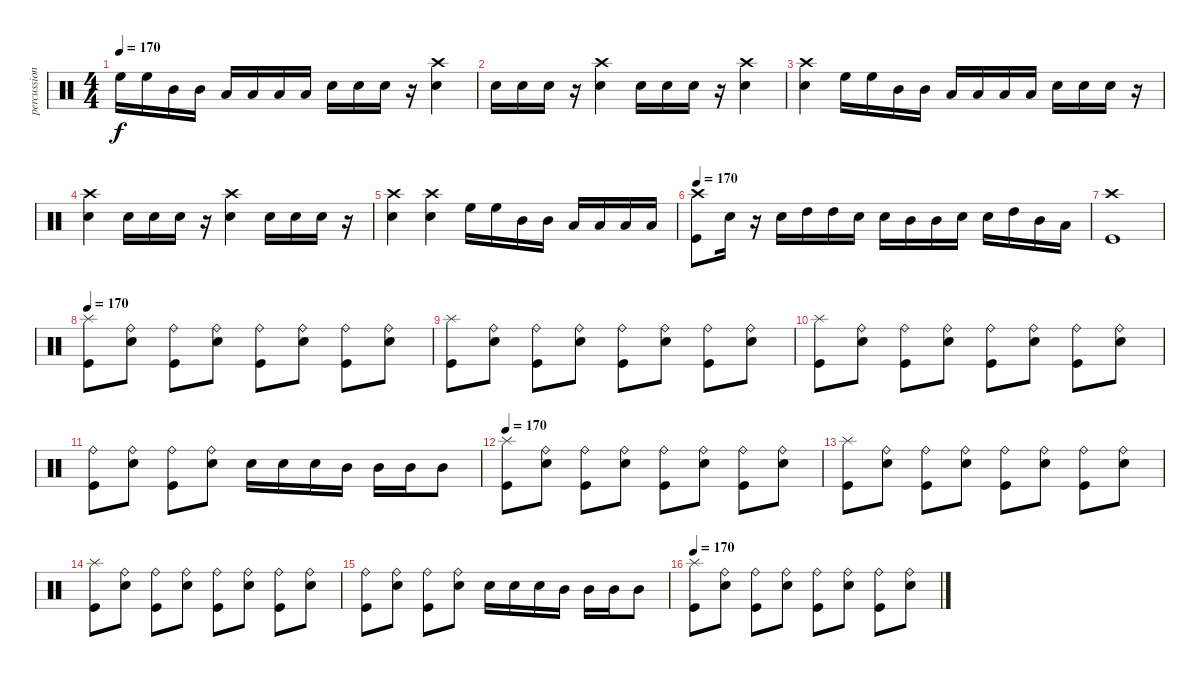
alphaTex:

\track ("percussion" "percussion") {instrument percussion}
\staff {score}
\articulation defaults
\ts (4 4)
\tempo 170
\clef neutral
\ks c "High Floor Tom (hit)".16{dy f} "High Floor Tom (hit)".16 "Mid Tom (hit)".16 "Mid Tom (hit)".16 "Low Tom (hit)".16 "Low Tom (hit)".16 "Low Floor Tom (hit)".16 "Low Floor Tom (hit)".16 "Snare (hit) 2".16 "Snare (hit) 2".16 "Snare (hit) 2".16
r.16 ("Crash high (hit)" "Snare (hit) 2").4 |
"Snare (hit) 2".16 "Snare (hit) 2".16 "Snare (hit) 2".16 r.16 ("Crash high (hit)" "Snare (hit) 2").4 "Snare (hit) 2".16 "Snare (hit) 2".16 "Snare (hit) 2".16 r.16 ("Crash high (hit)" "Snare (hit) 2").4 |
("Crash high (hit)" "Snare (hit) 2").4 "High Floor Tom (hit)".16 "High Floor Tom (hit)".16 "Mid Tom (hit)".16 "Mid Tom (hit)".16 "Low Tom (hit)".16 "Low Tom (hit)".16 "Low Floor Tom (hit)".16 "Low Floor Tom (hit)".16 "Snare (hit) 2".16 "Snare (hit) 2".16 "Snare (hit) 2".16 r.16 |
("Crash high (hit)" "Snare (hit) 2").4 "Snare (hit) 2".16 "Snare (hit) 2".16 "Snare (hit) 2".16 r.16 ("Crash high (hit)" "Snare (hit) 2").4 "Snare (hit) 2".16 "Snare (hit) 2".16 "Snare (hit) 2".16 r.16 |
("Crash high (hit)" "Snare (hit) 2").4 ("Crash high (hit)" "Snare (hit) 2").4 "High Floor Tom (hit)".16 "High Floor Tom (hit)".16 "Mid Tom (hit)".16 "Mid Tom (hit)".16 "Low Tom (hit)".16 "Low Tom (hit)".16 "Low Floor Tom (hit)".16 "Low Floor Tom (hit)".16 |
\tempo 170
("Crash high (hit)" "Kick (hit)").8 "Snare (hit) 2".16 r.16 "Snare (hit) 2".16 "High Tom (hit)".16 "High Tom (hit)".16 "Snare (hit) 2".16 "Snare (hit) 2".16 "Mid Tom (hit)".16 "Mid Tom (hit)".16 "Snare (hit) 2".16 "Snare (hit) 2".16 "High Tom (hit)".16 "Mid Tom (hit)".16 "Low Tom (hit)".16 |
("Crash high (hit)" "Kick (hit)").1 |
\tempo 170
("Kick (hit)" "Splash (hit)").8 ("Electric Snare (hit)" "Ride (bell)").8 ("Kick (hit)" "Ride (bell)").8 ("Electric Snare (hit)" "Ride (bell)").8 ("Kick (hit)" "Ride (bell)").8 ("Electric Snare (hit)" "Ride (bell)").8 ("Kick (hit)" "Ride (bell)").8 ("Electric Snare (hit)" "Ride (bell)").8 |
("Kick (hit)" "Splash (hit)").8 ("Electric Snare (hit)" "Ride (bell)").8 ("Kick (hit)" "Ride (bell)").8 ("Electric Snare (hit)" "Ride (bell)").8 ("Kick (hit)" "Ride (bell)").8 ("Electric Snare (hit)" "Ride (bell)").8 ("Kick (hit)" "Ride (bell)").8 ("Electric Snare (hit)" "Ride (bell)").8 |
("Kick (hit)" "Splash (hit)").8 ("Electric Snare (hit)" "Ride (bell)").8 ("Kick (hit)" "Ride (bell)").8 ("Electric Snare (hit)" "Ride (bell)").8 ("Kick (hit)" "Ride (bell)").8 ("Electric Snare (hit)" "Ride (bell)").8 ("Kick (hit)" "Ride (bell)").8 ("Electric Snare (hit)" "Ride (bell)").8 |
("Kick (hit)" "Ride (bell)").8 ("Electric Snare (hit)" "Ride (bell)").8 ("Kick (hit)" "Ride (bell)").8 ("Electric Snare (hit)" "Ride (bell)").8 "Electric Snare (hit)".16 "Electric Snare (hit)".16 "Electric Snare (hit)".16 "Mid Tom (hit)".16 "Mid Tom (hit)".16 "Mid Tom (hit)".16 "Mid Tom (hit)".8 |
\tempo 170
("Kick (hit)" "Splash (hit)").8 ("Electric Snare (hit)" "Ride (bell)").8 ("Kick (hit)" "Ride (bell)").8 ("Electric Snare (hit)" "Ride (bell)").8 ("Kick (hit)" "Ride (bell)").8 ("Electric Snare (hit)" "Ride (bell)").8 ("Kick (hit)" "Ride (bell)").8 ("Electric Snare (hit)" "Ride (bell)").8 |
("Kick (hit)" "Splash (hit)").8 ("Electric Snare (hit)" "Ride (bell)").8 ("Kick (hit)" "Ride (bell)").8 ("Electric Snare (hit)" "Ride (bell)").8 ("Kick (hit)" "Ride (bell)").8 ("Electric Snare (hit)" "Ride (bell)").8 ("Kick (hit)" "Ride (bell)").8 ("Electric Snare (hit)" "Ride (bell)").8 |
("Kick (hit)" "Splash (hit)").8 ("Electric Snare (hit)" "Ride (bell)").8 ("Kick (hit)" "Ride (bell)").8 ("Electric Snare (hit)" "Ride (bell)").8 ("Kick (hit)" "Ride (bell)").8 ("Electric Snare (hit)" "Ride (bell)").8 ("Kick (hit)" "Ride (bell)").8 ("Electric Snare (hit)" "Ride (bell)").8 |
("Kick (hit)" "Ride (bell)").8 ("Electric Snare (hit)" "Ride (bell)").8 ("Kick (hit)" "Ride (bell)").8 ("Electric Snare (hit)" "Ride (bell)").8 "Electric Snare (hit)".16 "Electric Snare (hit)".16 "Electric Snare (hit)".16 "Mid Tom (hit)".16 "Mid Tom (hit)".16 "Mid Tom (hit)".16 "Mid Tom (hit)".8 |
\tempo 170
("Kick (hit)" "Splash (hit)").8 ("Electric Snare (hit)" "Ride (bell)").8 ("Kick (hit)" "Ride (bell)").8 ("Electric Snare (hit)" "Ride (bell)").8 ("Kick (hit)" "Ride (bell)").8 ("Electric Snare (hit)" "Ride (bell)").8 ("Kick (hit)" "Ride (bell)").8 ("Electric Snare (hit)" "Ride (bell)").8
